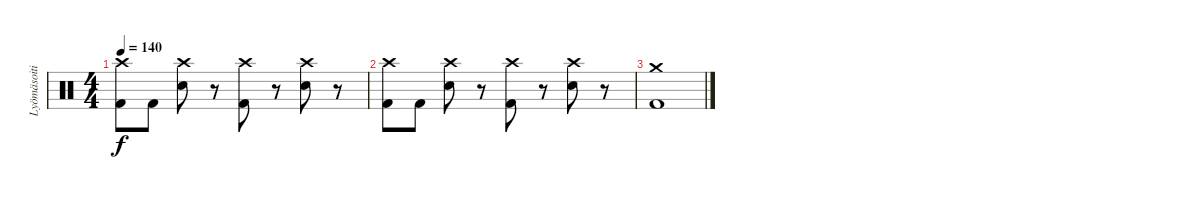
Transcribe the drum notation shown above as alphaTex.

\track ("Lyömäsoitin" "Lyömäsoiti") {instrument percussion}
\staff {score}
\articulation defaults
\ts (4 4)
\tempo 140
\clef neutral
\ks c
("Crash high (hit)" "Kick (hit) 2").8{dy f} "Kick (hit) 2".8 ("Crash high (hit)" "Electric Snare (hit)").8 r.8 ("Crash high (hit)" "Kick (hit) 2").8 r.8 ("Crash high (hit)" "Electric Snare (hit)").8 r.8 |
("Crash high (hit)" "Kick (hit) 2").8 "Kick (hit) 2".8 ("Crash high (hit)" "Electric Snare (hit)").8 r.8 ("Crash high (hit)" "Kick (hit) 2").8 r.8 ("Crash high (hit)" "Electric Snare (hit)").8 r.8 |
("Crash medium (hit)" "Kick (hit) 2").1
